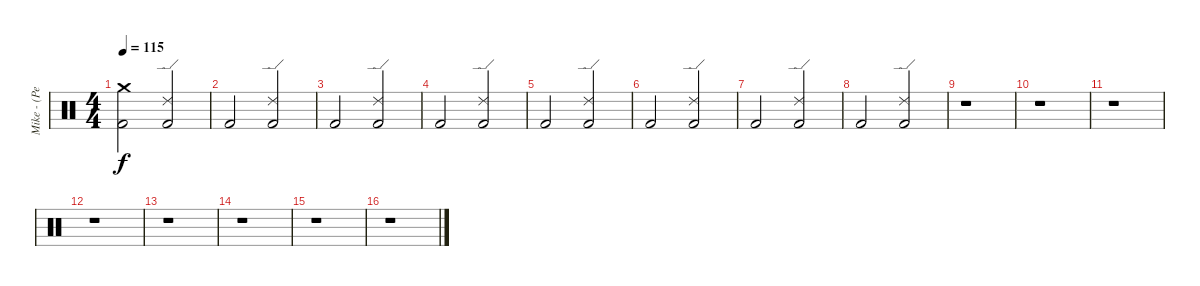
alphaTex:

\track ("Mike - (Percussion)" "Mike - (Pe") {instrument percussion}
\staff {score}
\articulation defaults
\ts (4 4)
\tempo 115
\clef neutral
\ks c
("Crash medium (hit)" "Kick (hit) 2").2{dy f} ("Ride (edge) 2" "Kick (hit) 2").2 |
"Kick (hit) 2".2 ("Ride (edge) 2" "Kick (hit) 2").2 |
"Kick (hit) 2".2 ("Ride (edge) 2" "Kick (hit) 2").2 |
"Kick (hit) 2".2 ("Ride (edge) 2" "Kick (hit) 2").2 |
"Kick (hit) 2".2 ("Ride (edge) 2" "Kick (hit) 2").2 |
"Kick (hit) 2".2 ("Ride (edge) 2" "Kick (hit) 2").2 |
"Kick (hit) 2".2 ("Ride (edge) 2" "Kick (hit) 2").2 |
"Kick (hit) 2".2 ("Ride (edge) 2" "Kick (hit) 2").2 |
r.1 |
r.1 |
r.1 |
r.1 |
r.1 |
r.1 |
r.1 |
r.1
